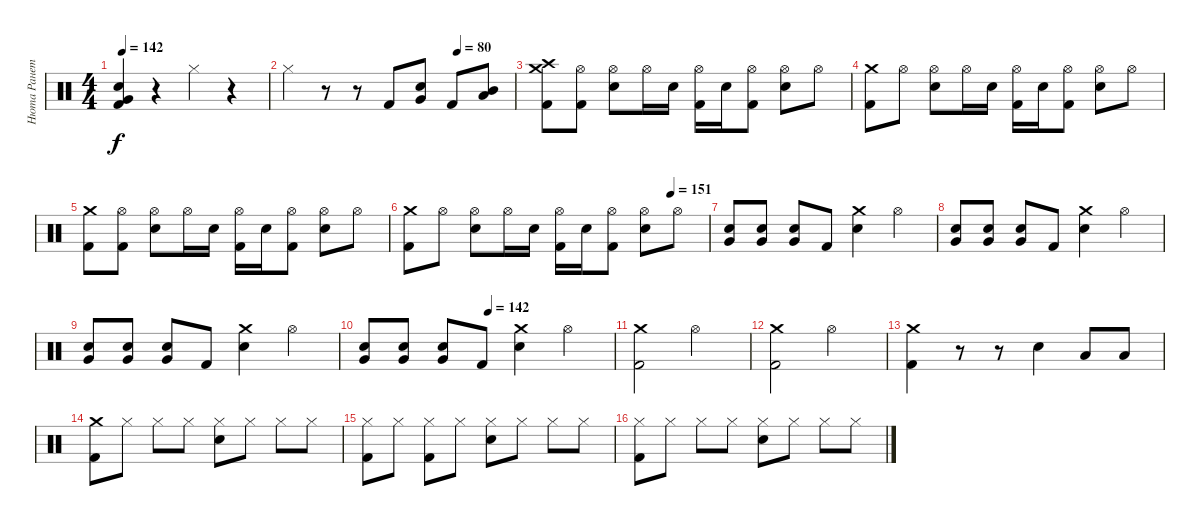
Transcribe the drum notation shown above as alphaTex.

\track ("Нюта Ранетка" "Нюта Ранет") {instrument percussion}
\staff {score}
\articulation defaults
\ts (4 4)
\tempo 142
\clef neutral
\ks c
("Very Low Tom (hit)" "Snare (hit) 2" "Kick (hit) 2").4{dy f} r.4 "Hi-Hat (closed)".4 r.4 |
\tempo (80 0.75)
"Hi-Hat (closed)".4 r.8 r.8 "Kick (hit) 2".8 ("Very Low Tom (hit)" "Snare (hit) 2").8 "Kick (hit) 2".8 ("Low Tom (hit)" "Mid Tom (hit)").8 |
("Crash medium (hit)" "Crash high (hit)" "Kick (hit) 2").8 ("Hi-Hat (open)" "Kick (hit) 2").8 ("Hi-Hat (open)" "Snare (hit) 2").8 "Hi-Hat (open)".16 "Snare (hit) 2".16 ("Hi-Hat (open)" "Kick (hit) 2").16 "Snare (hit) 2".16 ("Hi-Hat (open)" "Kick (hit) 2").8 ("Hi-Hat (open)" "Snare (hit) 2").8 "Hi-Hat (open)".8 |
("Crash medium (hit)" "Kick (hit) 2").8 "Hi-Hat (open)".8 ("Hi-Hat (open)" "Snare (hit) 2").8 "Hi-Hat (open)".16 "Snare (hit) 2".16 ("Hi-Hat (open)" "Kick (hit) 2").16 "Snare (hit) 2".16 ("Hi-Hat (open)" "Kick (hit) 2").8 ("Hi-Hat (open)" "Snare (hit) 2").8 "Hi-Hat (open)".8 |
("Crash medium (hit)" "Kick (hit) 2").8 ("Hi-Hat (open)" "Kick (hit) 2").8 ("Hi-Hat (open)" "Snare (hit) 2").8 "Hi-Hat (open)".16 "Snare (hit) 2".16 ("Hi-Hat (open)" "Kick (hit) 2").16 "Snare (hit) 2".16 ("Hi-Hat (open)" "Kick (hit) 2").8 ("Hi-Hat (open)" "Snare (hit) 2").8 "Hi-Hat (open)".8 |
\tempo (151 0.875)
("Crash medium (hit)" "Kick (hit) 2").8 "Hi-Hat (open)".8 ("Hi-Hat (open)" "Snare (hit) 2").8 "Hi-Hat (open)".16 "Snare (hit) 2".16 ("Hi-Hat (open)" "Kick (hit) 2").16 "Snare (hit) 2".16 ("Hi-Hat (open)" "Kick (hit) 2").8 ("Hi-Hat (open)" "Snare (hit) 2").8 "Hi-Hat (open)".8 |
("Very Low Tom (hit)" "Snare (hit) 2").8 ("Very Low Tom (hit)" "Snare (hit) 2").8 ("Very Low Tom (hit)" "Snare (hit) 2").8 "Kick (hit) 2".8 ("Crash medium (hit)" "Snare (hit) 2").4 "Hi-Hat (open)".4 |
("Very Low Tom (hit)" "Snare (hit) 2").8 ("Very Low Tom (hit)" "Snare (hit) 2").8 ("Very Low Tom (hit)" "Snare (hit) 2").8 "Kick (hit) 2".8 ("Crash medium (hit)" "Snare (hit) 2").4 "Hi-Hat (open)".4 |
("Very Low Tom (hit)" "Snare (hit) 2").8 ("Very Low Tom (hit)" "Snare (hit) 2").8 ("Very Low Tom (hit)" "Snare (hit) 2").8 "Kick (hit) 2".8 ("Crash medium (hit)" "Snare (hit) 2").4 "Hi-Hat (open)".4 |
\tempo (142 0.5)
("Very Low Tom (hit)" "Snare (hit) 2").8 ("Very Low Tom (hit)" "Snare (hit) 2").8 ("Very Low Tom (hit)" "Snare (hit) 2").8 "Kick (hit) 2".8 ("Crash medium (hit)" "Snare (hit) 2").4 "Hi-Hat (open)".4 |
("Crash medium (hit)" "Kick (hit) 2").2 "Hi-Hat (open)".2 |
("Crash medium (hit)" "Kick (hit) 2").2 "Hi-Hat (open)".2 |
("Crash medium (hit)" "Kick (hit) 2").4 r.8 r.8 "Snare (hit) 2".4 "Low Tom (hit)".8 "Low Tom (hit)".8 |
("Crash medium (hit)" "Kick (hit) 2").8 "Hi-Hat (closed)".8 "Hi-Hat (closed)".8 "Hi-Hat (closed)".8 ("Hi-Hat (closed)" "Snare (hit) 2").8 "Hi-Hat (closed)".8 "Hi-Hat (closed)".8 "Hi-Hat (closed)".8 |
("Hi-Hat (closed)" "Kick (hit) 2").8 "Hi-Hat (closed)".8 ("Hi-Hat (closed)" "Kick (hit) 2").8 "Hi-Hat (closed)".8 ("Hi-Hat (closed)" "Snare (hit) 2").8 "Hi-Hat (closed)".8 "Hi-Hat (closed)".8 "Hi-Hat (closed)".8 |
("Hi-Hat (closed)" "Kick (hit) 2").8 "Hi-Hat (closed)".8 "Hi-Hat (closed)".8 "Hi-Hat (closed)".8 ("Hi-Hat (closed)" "Snare (hit) 2").8 "Hi-Hat (closed)".8 "Hi-Hat (closed)".8 "Hi-Hat (closed)".8
